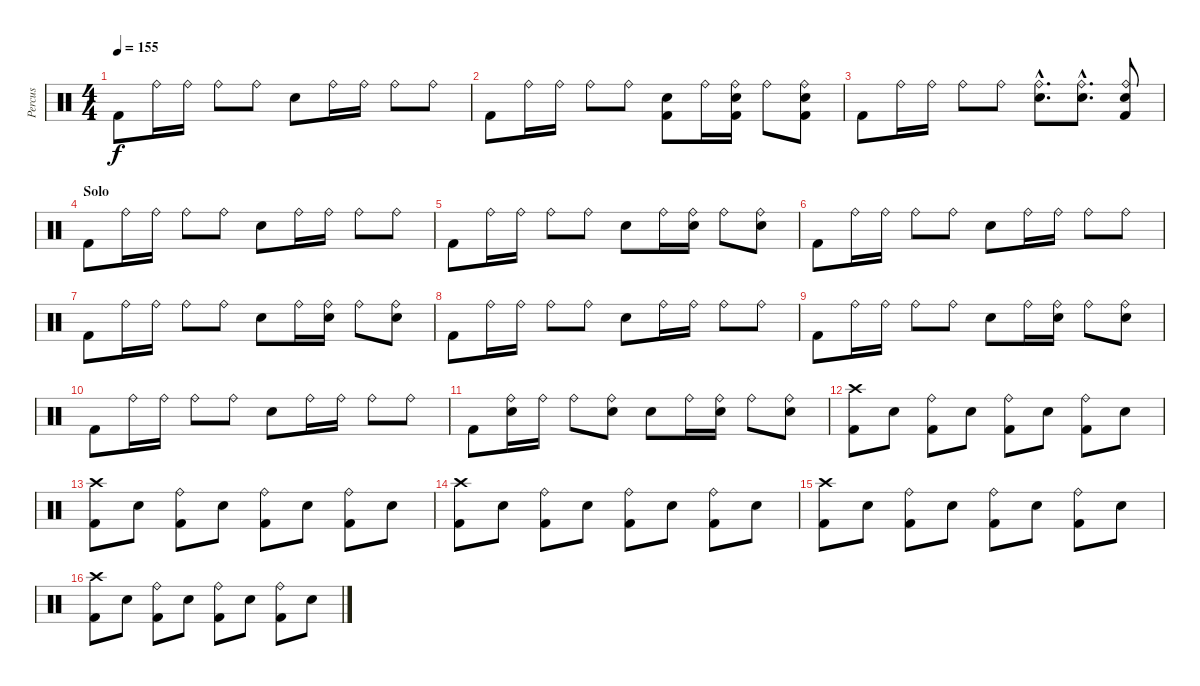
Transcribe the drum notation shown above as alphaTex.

\track ("Percus" "Percus") {instrument percussion}
\staff {score}
\articulation defaults
\ts (4 4)
\tempo 155
\clef neutral
\ks c "Kick (hit) 2".8{dy f} "Ride (bell)".16 "Ride (bell)".16 "Ride (bell)".8 "Ride (bell)".8 "Snare (hit) 2".8 "Ride (bell)".16 "Ride (bell)".16 "Ride (bell)".8 "Ride (bell)".8
|
"Kick (hit) 2".8 "Ride (bell)".16 "Ride (bell)".16 "Ride (bell)".8 "Ride (bell)".8 ("Snare (hit) 2" "Kick (hit) 2").8 "Ride (bell)".16 ("Ride (bell)" "Snare (hit) 2" "Kick (hit) 2").16 "Ride (bell)".8 ("Ride (bell)" "Snare (hit) 2" "Kick (hit) 2").8 |
"Kick (hit) 2".8 "Ride (bell)".16 "Ride (bell)".16 "Ride (bell)".8 "Ride (bell)".8 ("Ride (bell)"{hac} "Snare (hit) 2"{hac}).8{d} ("Ride (bell)"{hac} "Snare (hit) 2"{hac}).8{d} ("Ride (bell)" "Snare (hit) 2" "Kick (hit) 2").8 |
\section ("" "Solo")
"Kick (hit) 2".8 "Ride (bell)".16 "Ride (bell)".16 "Ride (bell)".8 "Ride (bell)".8 "Snare (hit) 2".8 "Ride (bell)".16 "Ride (bell)".16 "Ride (bell)".8 "Ride (bell)".8 |
"Kick (hit) 2".8 "Ride (bell)".16 "Ride (bell)".16 "Ride (bell)".8 "Ride (bell)".8 "Snare (hit) 2".8 "Ride (bell)".16 ("Ride (bell)" "Snare (hit) 2").16 "Ride (bell)".8 ("Ride (bell)" "Snare (hit) 2").8 |
"Kick (hit) 2".8 "Ride (bell)".16 "Ride (bell)".16 "Ride (bell)".8 "Ride (bell)".8 "Snare (hit) 2".8 "Ride (bell)".16 "Ride (bell)".16 "Ride (bell)".8 "Ride (bell)".8 |
"Kick (hit) 2".8 "Ride (bell)".16 "Ride (bell)".16 "Ride (bell)".8 "Ride (bell)".8 "Snare (hit) 2".8 "Ride (bell)".16 ("Ride (bell)" "Snare (hit) 2").16 "Ride (bell)".8 ("Ride (bell)" "Snare (hit) 2").8 |
"Kick (hit) 2".8 "Ride (bell)".16 "Ride (bell)".16 "Ride (bell)".8 "Ride (bell)".8 "Snare (hit) 2".8 "Ride (bell)".16 "Ride (bell)".16 "Ride (bell)".8 "Ride (bell)".8 |
"Kick (hit) 2".8 "Ride (bell)".16 "Ride (bell)".16 "Ride (bell)".8 "Ride (bell)".8 "Snare (hit) 2".8 "Ride (bell)".16 ("Ride (bell)" "Snare (hit) 2").16 "Ride (bell)".8 ("Ride (bell)" "Snare (hit) 2").8 |
"Kick (hit) 2".8 "Ride (bell)".16 "Ride (bell)".16 "Ride (bell)".8 "Ride (bell)".8 "Snare (hit) 2".8 "Ride (bell)".16 "Ride (bell)".16 "Ride (bell)".8 "Ride (bell)".8 |
"Kick (hit) 2".8 ("Ride (bell)" "Snare (hit) 2").16 "Ride (bell)".16 "Ride (bell)".8 ("Ride (bell)" "Snare (hit) 2").8 "Snare (hit) 2".8 "Ride (bell)".16 ("Ride (bell)" "Snare (hit) 2").16 "Ride (bell)".8 ("Ride (bell)" "Snare (hit) 2").8 |
("Crash high (hit)" "Kick (hit) 2").8 "Snare (hit) 2".8 ("Ride (bell)" "Kick (hit) 2").8 "Snare (hit) 2".8 ("Ride (bell)" "Kick (hit) 2").8 "Snare (hit) 2".8 ("Ride (bell)" "Kick (hit) 2").8 "Snare (hit) 2".8 |
("Crash high (hit)" "Kick (hit) 2").8 "Snare (hit) 2".8 ("Ride (bell)" "Kick (hit) 2").8 "Snare (hit) 2".8 ("Ride (bell)" "Kick (hit) 2").8 "Snare (hit) 2".8 ("Ride (bell)" "Kick (hit) 2").8 "Snare (hit) 2".8 |
("Crash high (hit)" "Kick (hit) 2").8 "Snare (hit) 2".8 ("Ride (bell)" "Kick (hit) 2").8 "Snare (hit) 2".8 ("Ride (bell)" "Kick (hit) 2").8 "Snare (hit) 2".8 ("Ride (bell)" "Kick (hit) 2").8 "Snare (hit) 2".8 |
("Crash high (hit)" "Kick (hit) 2").8 "Snare (hit) 2".8 ("Ride (bell)" "Kick (hit) 2").8 "Snare (hit) 2".8 ("Ride (bell)" "Kick (hit) 2").8 "Snare (hit) 2".8 ("Ride (bell)" "Kick (hit) 2").8 "Snare (hit) 2".8 |
("Crash high (hit)" "Kick (hit) 2").8 "Snare (hit) 2".8 ("Ride (bell)" "Kick (hit) 2").8 "Snare (hit) 2".8 ("Ride (bell)" "Kick (hit) 2").8 "Snare (hit) 2".8 ("Ride (bell)" "Kick (hit) 2").8 "Snare (hit) 2".8
